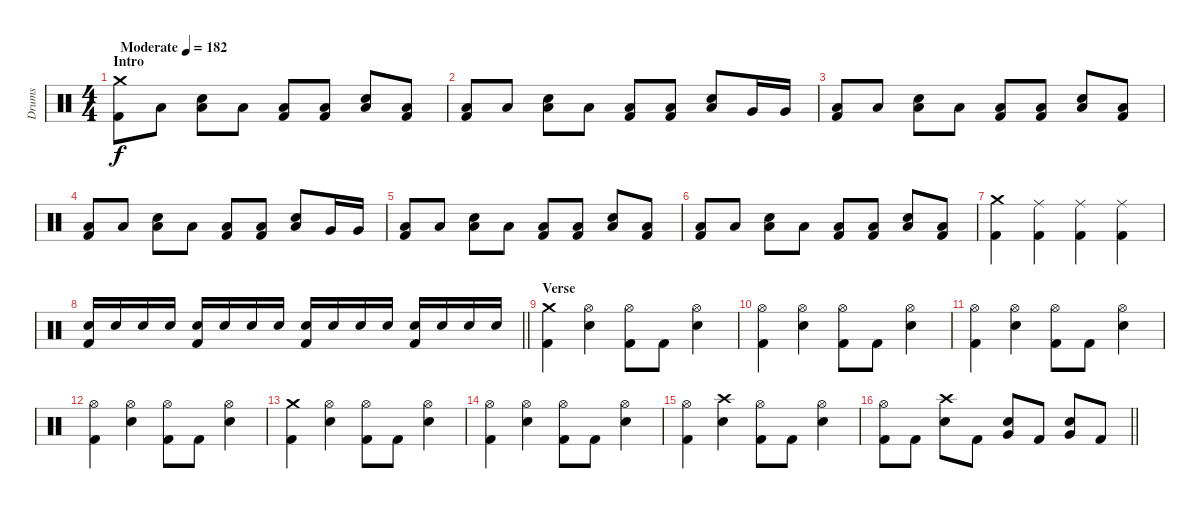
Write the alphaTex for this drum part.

\track ("Drums" "Drums") {instrument percussion}
\staff {score}
\articulation defaults
\ts (4 4)
\section ("" "Intro")
\tempo (182 "Moderate")
\clef neutral
\ks c
("Crash medium (hit)" "Kick (hit) 2").8{dy f} "Low Floor Tom (hit)".8 ("Low Floor Tom (hit)" "Electric Snare (hit)").8 "Low Floor Tom (hit)".8 ("Low Floor Tom (hit)" "Kick (hit) 2").8 ("Low Floor Tom (hit)" "Kick (hit) 2").8 ("Low Floor Tom (hit)" "Electric Snare (hit)").8 ("Low Floor Tom (hit)" "Kick (hit) 2").8 |
("Low Floor Tom (hit)" "Kick (hit) 2").8 "Low Floor Tom (hit)".8 ("Low Floor Tom (hit)" "Electric Snare (hit)").8 "Low Floor Tom (hit)".8 ("Low Floor Tom (hit)" "Kick (hit) 2").8 ("Low Floor Tom (hit)" "Kick (hit) 2").8 ("Low Floor Tom (hit)" "Electric Snare (hit)").8 "Very Low Tom (hit)".16 "Very Low Tom (hit)".16 |
("Low Floor Tom (hit)" "Kick (hit) 2").8 "Low Floor Tom (hit)".8 ("Low Floor Tom (hit)" "Electric Snare (hit)").8 "Low Floor Tom (hit)".8 ("Low Floor Tom (hit)" "Kick (hit) 2").8 ("Low Floor Tom (hit)" "Kick (hit) 2").8 ("Low Floor Tom (hit)" "Electric Snare (hit)").8 ("Low Floor Tom (hit)" "Kick (hit) 2").8 |
("Low Floor Tom (hit)" "Kick (hit) 2").8 "Low Floor Tom (hit)".8 ("Low Floor Tom (hit)" "Electric Snare (hit)").8 "Low Floor Tom (hit)".8 ("Low Floor Tom (hit)" "Kick (hit) 2").8 ("Low Floor Tom (hit)" "Kick (hit) 2").8 ("Low Floor Tom (hit)" "Electric Snare (hit)").8 "Very Low Tom (hit)".16 "Very Low Tom (hit)".16 |
("Low Floor Tom (hit)" "Kick (hit) 2").8 "Low Floor Tom (hit)".8 ("Low Floor Tom (hit)" "Electric Snare (hit)").8 "Low Floor Tom (hit)".8 ("Low Floor Tom (hit)" "Kick (hit) 2").8 ("Low Floor Tom (hit)" "Kick (hit) 2").8 ("Low Floor Tom (hit)" "Electric Snare (hit)").8 ("Low Floor Tom (hit)" "Kick (hit) 2").8 |
("Low Floor Tom (hit)" "Kick (hit) 2").8 "Low Floor Tom (hit)".8 ("Low Floor Tom (hit)" "Electric Snare (hit)").8 "Low Floor Tom (hit)".8 ("Low Floor Tom (hit)" "Kick (hit) 2").8 ("Low Floor Tom (hit)" "Kick (hit) 2").8 ("Low Floor Tom (hit)" "Electric Snare (hit)").8 ("Low Floor Tom (hit)" "Kick (hit) 2").8 |
("Crash medium (hit)" "Kick (hit) 2").4 ("Ride (middle)" "Kick (hit) 2").4 ("Ride (middle)" "Kick (hit) 2").4 ("Ride (middle)" "Kick (hit) 2").4 |
\barLineRight lightlight
("Electric Snare (hit)" "Kick (hit) 2").16{volume 8} "Electric Snare (hit)".16{volume 12} "Electric Snare (hit)".16 "Electric Snare (hit)".16 ("Electric Snare (hit)" "Kick (hit) 2").16 "Electric Snare (hit)".16 "Electric Snare (hit)".16 "Electric Snare (hit)".16 ("Electric Snare (hit)" "Kick (hit) 2").16 "Electric Snare (hit)".16 "Electric Snare (hit)".16 "Electric Snare (hit)".16 ("Electric Snare (hit)" "Kick (hit) 2").16 "Electric Snare (hit)".16 "Electric Snare (hit)".16 "Electric Snare (hit)".16 |
\section ("" "Verse")
("Crash medium (hit)" "Kick (hit) 2").4 ("Hi-Hat (open)" "Electric Snare (hit)").4 ("Hi-Hat (open)" "Kick (hit) 2").8 "Kick (hit) 2".8 ("Hi-Hat (open)" "Electric Snare (hit)").4 |
("Hi-Hat (open)" "Kick (hit) 2").4 ("Hi-Hat (open)" "Electric Snare (hit)").4 ("Hi-Hat (open)" "Kick (hit) 2").8 "Kick (hit) 2".8 ("Hi-Hat (open)" "Electric Snare (hit)").4 |
("Hi-Hat (open)" "Kick (hit) 2").4 ("Hi-Hat (open)" "Electric Snare (hit)").4 ("Hi-Hat (open)" "Kick (hit) 2").8 "Kick (hit) 2".8 ("Hi-Hat (open)" "Electric Snare (hit)").4 |
("Hi-Hat (open)" "Kick (hit) 2").4 ("Hi-Hat (open)" "Electric Snare (hit)").4 ("Hi-Hat (open)" "Kick (hit) 2").8 "Kick (hit) 2".8 ("Hi-Hat (open)" "Electric Snare (hit)").4 |
("Crash medium (hit)" "Kick (hit) 2").4 ("Hi-Hat (open)" "Electric Snare (hit)").4 ("Hi-Hat (open)" "Kick (hit) 2").8 "Kick (hit) 2".8 ("Hi-Hat (open)" "Electric Snare (hit)").4 |
("Hi-Hat (open)" "Kick (hit) 2").4 ("Hi-Hat (open)" "Electric Snare (hit)").4 ("Hi-Hat (open)" "Kick (hit) 2").8 "Kick (hit) 2".8 ("Hi-Hat (open)" "Electric Snare (hit)").4 |
("Hi-Hat (open)" "Kick (hit) 2").4 ("Crash high (hit)" "Electric Snare (hit)").4 ("Hi-Hat (open)" "Kick (hit) 2").8 "Kick (hit) 2".8 ("Hi-Hat (open)" "Electric Snare (hit)").4 |
\barLineRight lightlight
("Hi-Hat (open)" "Kick (hit) 2").8 "Kick (hit) 2".8 ("Crash high (hit)" "Electric Snare (hit)").8 "Kick (hit) 2".8 ("Very Low Tom (hit)" "Electric Snare (hit)").8 "Kick (hit) 2".8 ("Very Low Tom (hit)" "Electric Snare (hit)").8 "Kick (hit) 2".8
